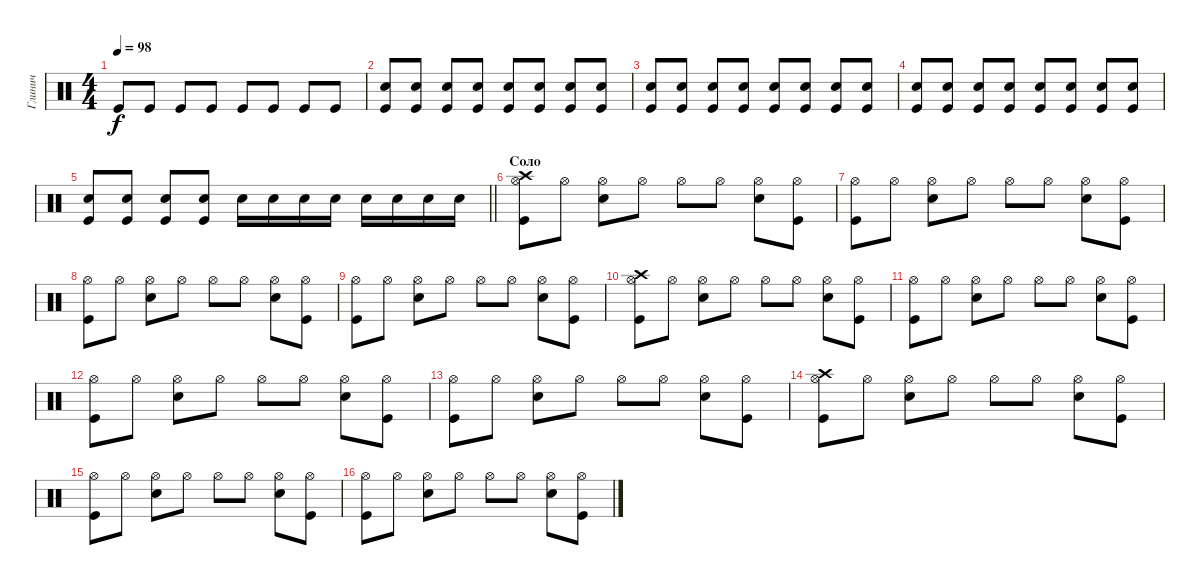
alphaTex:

\track ("Глинич" "Глинич") {instrument percussion}
\staff {score}
\articulation defaults
\ts (4 4)
\tempo 98
\clef neutral
\ks c "Kick (hit)".8{dy f} "Kick (hit)".8 "Kick (hit)".8 "Kick (hit)".8 "Kick (hit)".8 "Kick (hit)".8 "Kick (hit)".8 "Kick (hit)".8
|
("Snare (hit) 2" "Kick (hit)").8 ("Snare (hit) 2" "Kick (hit)").8 ("Snare (hit) 2" "Kick (hit)").8 ("Snare (hit) 2" "Kick (hit)").8 ("Snare (hit) 2" "Kick (hit)").8 ("Snare (hit) 2" "Kick (hit)").8 ("Snare (hit) 2" "Kick (hit)").8 ("Snare (hit) 2" "Kick (hit)").8 |
("Snare (hit) 2" "Kick (hit)").8 ("Snare (hit) 2" "Kick (hit)").8 ("Snare (hit) 2" "Kick (hit)").8 ("Snare (hit) 2" "Kick (hit)").8 ("Snare (hit) 2" "Kick (hit)").8 ("Snare (hit) 2" "Kick (hit)").8 ("Snare (hit) 2" "Kick (hit)").8 ("Snare (hit) 2" "Kick (hit)").8 |
("Snare (hit) 2" "Kick (hit)").8 ("Snare (hit) 2" "Kick (hit)").8 ("Snare (hit) 2" "Kick (hit)").8 ("Snare (hit) 2" "Kick (hit)").8 ("Snare (hit) 2" "Kick (hit)").8 ("Snare (hit) 2" "Kick (hit)").8 ("Snare (hit) 2" "Kick (hit)").8 ("Snare (hit) 2" "Kick (hit)").8 |
\barLineRight lightlight
("Snare (hit) 2" "Kick (hit)").8 ("Snare (hit) 2" "Kick (hit)").8 ("Snare (hit) 2" "Kick (hit)").8 ("Snare (hit) 2" "Kick (hit)").8 "Snare (hit) 2".16 "Snare (hit) 2".16 "Snare (hit) 2".16 "Snare (hit) 2".16 "Snare (hit) 2".16 "Snare (hit) 2".16 "Snare (hit) 2".16 "Snare (hit) 2".16 |
\section ("" "Соло")
("Hi-Hat (open)" "Kick (hit)" "Crash high (hit)").8 "Hi-Hat (open)".8 ("Hi-Hat (open)" "Snare (hit) 2").8 "Hi-Hat (open)".8 "Hi-Hat (open)".8 "Hi-Hat (open)".8 ("Hi-Hat (open)" "Snare (hit) 2").8 ("Hi-Hat (open)" "Kick (hit)").8 |
("Hi-Hat (open)" "Kick (hit)").8 "Hi-Hat (open)".8 ("Hi-Hat (open)" "Snare (hit) 2").8 "Hi-Hat (open)".8 "Hi-Hat (open)".8 "Hi-Hat (open)".8 ("Hi-Hat (open)" "Snare (hit) 2").8 ("Hi-Hat (open)" "Kick (hit)").8 |
("Hi-Hat (open)" "Kick (hit)").8 "Hi-Hat (open)".8 ("Hi-Hat (open)" "Snare (hit) 2").8 "Hi-Hat (open)".8 "Hi-Hat (open)".8 "Hi-Hat (open)".8 ("Hi-Hat (open)" "Snare (hit) 2").8 ("Hi-Hat (open)" "Kick (hit)").8 |
("Hi-Hat (open)" "Kick (hit)").8 "Hi-Hat (open)".8 ("Hi-Hat (open)" "Snare (hit) 2").8 "Hi-Hat (open)".8 "Hi-Hat (open)".8 "Hi-Hat (open)".8 ("Hi-Hat (open)" "Snare (hit) 2").8 ("Hi-Hat (open)" "Kick (hit)").8 |
("Hi-Hat (open)" "Kick (hit)" "Crash high (hit)").8 "Hi-Hat (open)".8 ("Hi-Hat (open)" "Snare (hit) 2").8 "Hi-Hat (open)".8 "Hi-Hat (open)".8 "Hi-Hat (open)".8 ("Hi-Hat (open)" "Snare (hit) 2").8 ("Hi-Hat (open)" "Kick (hit)").8 |
("Hi-Hat (open)" "Kick (hit)").8 "Hi-Hat (open)".8 ("Hi-Hat (open)" "Snare (hit) 2").8 "Hi-Hat (open)".8 "Hi-Hat (open)".8 "Hi-Hat (open)".8 ("Hi-Hat (open)" "Snare (hit) 2").8 ("Hi-Hat (open)" "Kick (hit)").8 |
("Hi-Hat (open)" "Kick (hit)").8 "Hi-Hat (open)".8 ("Hi-Hat (open)" "Snare (hit) 2").8 "Hi-Hat (open)".8 "Hi-Hat (open)".8 "Hi-Hat (open)".8 ("Hi-Hat (open)" "Snare (hit) 2").8 ("Hi-Hat (open)" "Kick (hit)").8 |
("Hi-Hat (open)" "Kick (hit)").8 "Hi-Hat (open)".8 ("Hi-Hat (open)" "Snare (hit) 2").8 "Hi-Hat (open)".8 "Hi-Hat (open)".8 "Hi-Hat (open)".8 ("Hi-Hat (open)" "Snare (hit) 2").8 ("Hi-Hat (open)" "Kick (hit)").8 |
("Hi-Hat (open)" "Kick (hit)" "Crash high (hit)").8 "Hi-Hat (open)".8 ("Hi-Hat (open)" "Snare (hit) 2").8 "Hi-Hat (open)".8 "Hi-Hat (open)".8 "Hi-Hat (open)".8 ("Hi-Hat (open)" "Snare (hit) 2").8 ("Hi-Hat (open)" "Kick (hit)").8 |
("Hi-Hat (open)" "Kick (hit)").8 "Hi-Hat (open)".8 ("Hi-Hat (open)" "Snare (hit) 2").8 "Hi-Hat (open)".8 "Hi-Hat (open)".8 "Hi-Hat (open)".8 ("Hi-Hat (open)" "Snare (hit) 2").8 ("Hi-Hat (open)" "Kick (hit)").8 |
("Hi-Hat (open)" "Kick (hit)").8 "Hi-Hat (open)".8 ("Hi-Hat (open)" "Snare (hit) 2").8 "Hi-Hat (open)".8 "Hi-Hat (open)".8 "Hi-Hat (open)".8 ("Hi-Hat (open)" "Snare (hit) 2").8 ("Hi-Hat (open)" "Kick (hit)").8
